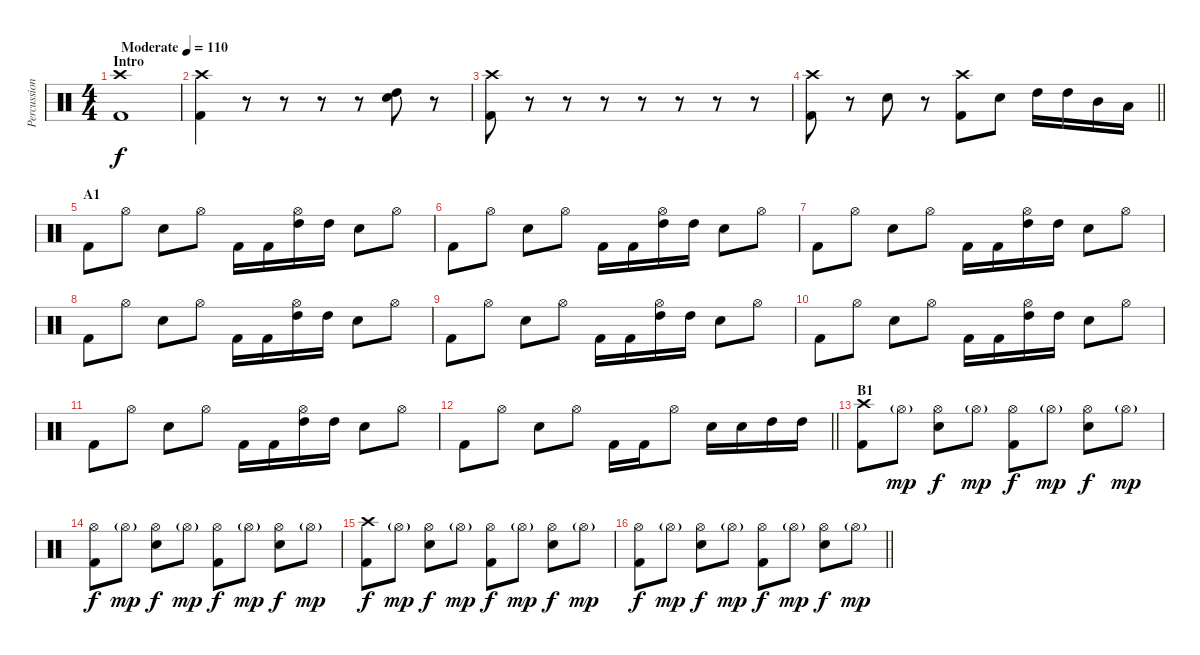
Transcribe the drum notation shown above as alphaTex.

\track ("Percussion" "Percussion") {instrument percussion}
\staff {score}
\articulation defaults
\ts (4 4)
\section ("" "Intro")
\tempo (110 "Moderate")
\clef neutral
\ks c
("Crash high (hit)" "Kick (hit) 2").1{dy f} |
("Crash high (hit)" "Kick (hit) 2").4 r.8 r.8 r.8 r.8 ("High Tom (hit)" "Snare (hit) 2").8 r.8 |
("Crash high (hit)" "Kick (hit) 2").8 r.8 r.8 r.8 r.8 r.8 r.8 r.8 |
\barLineRight lightlight
("Crash high (hit)" "Kick (hit) 2").8 r.8 "Snare (hit) 2".8 r.8 ("Crash high (hit)" "Kick (hit) 2").8 "Snare (hit) 2".8 "High Tom (hit)".16 "High Tom (hit)".16 "Mid Tom (hit)".16 "Low Tom (hit)".16 |
\section ("" "A1")
"Kick (hit) 2".8 "Hi-Hat (open)".8 "Snare (hit) 2".8 "Hi-Hat (open)".8 "Kick (hit) 2".16 "Kick (hit) 2".16 ("Hi-Hat (open)" "High Tom (hit)").16 "High Tom (hit)".16 "Snare (hit) 2".8 "Hi-Hat (open)".8 |
"Kick (hit) 2".8 "Hi-Hat (open)".8 "Snare (hit) 2".8 "Hi-Hat (open)".8 "Kick (hit) 2".16 "Kick (hit) 2".16 ("Hi-Hat (open)" "High Tom (hit)").16 "High Tom (hit)".16 "Snare (hit) 2".8 "Hi-Hat (open)".8 |
"Kick (hit) 2".8 "Hi-Hat (open)".8 "Snare (hit) 2".8 "Hi-Hat (open)".8 "Kick (hit) 2".16 "Kick (hit) 2".16 ("Hi-Hat (open)" "High Tom (hit)").16 "High Tom (hit)".16 "Snare (hit) 2".8 "Hi-Hat (open)".8 |
"Kick (hit) 2".8 "Hi-Hat (open)".8 "Snare (hit) 2".8 "Hi-Hat (open)".8 "Kick (hit) 2".16 "Kick (hit) 2".16 ("Hi-Hat (open)" "High Tom (hit)").16 "High Tom (hit)".16 "Snare (hit) 2".8 "Hi-Hat (open)".8 |
"Kick (hit) 2".8 "Hi-Hat (open)".8 "Snare (hit) 2".8 "Hi-Hat (open)".8 "Kick (hit) 2".16 "Kick (hit) 2".16 ("Hi-Hat (open)" "High Tom (hit)").16 "High Tom (hit)".16 "Snare (hit) 2".8 "Hi-Hat (open)".8 |
"Kick (hit) 2".8 "Hi-Hat (open)".8 "Snare (hit) 2".8 "Hi-Hat (open)".8 "Kick (hit) 2".16 "Kick (hit) 2".16 ("Hi-Hat (open)" "High Tom (hit)").16 "High Tom (hit)".16 "Snare (hit) 2".8 "Hi-Hat (open)".8 |
"Kick (hit) 2".8 "Hi-Hat (open)".8 "Snare (hit) 2".8 "Hi-Hat (open)".8 "Kick (hit) 2".16 "Kick (hit) 2".16 ("Hi-Hat (open)" "High Tom (hit)").16 "High Tom (hit)".16 "Snare (hit) 2".8 "Hi-Hat (open)".8 |
\barLineRight lightlight "Kick (hit) 2".8 "Hi-Hat (open)".8 "Snare (hit) 2".8 "Hi-Hat (open)".8 "Kick (hit) 2".16 "Kick (hit) 2".16 "Hi-Hat (open)".8 "Snare (hit) 2".16 "Snare (hit) 2".16 "High Tom (hit)".16 "High Tom (hit)".16
|
\section ("" "B1")
("Crash high (hit)" "Kick (hit) 2").8 "Hi-Hat (open)"{g}.8{dy mp} ("Hi-Hat (open)" "Snare (hit) 2").8{dy f} "Hi-Hat (open)"{g}.8{dy mp} ("Hi-Hat (open)" "Kick (hit) 2").8{dy f} "Hi-Hat (open)"{g}.8{dy mp} ("Hi-Hat (open)" "Snare (hit) 2").8{dy f} "Hi-Hat (open)"{g}.8{dy mp} |
("Hi-Hat (open)" "Kick (hit) 2").8{dy f} "Hi-Hat (open)"{g}.8{dy mp} ("Hi-Hat (open)" "Snare (hit) 2").8{dy f} "Hi-Hat (open)"{g}.8{dy mp} ("Hi-Hat (open)" "Kick (hit) 2").8{dy f} "Hi-Hat (open)"{g}.8{dy mp} ("Hi-Hat (open)" "Snare (hit) 2").8{dy f} "Hi-Hat (open)"{g}.8{dy mp} |
("Crash high (hit)" "Kick (hit) 2").8{dy f} "Hi-Hat (open)"{g}.8{dy mp} ("Hi-Hat (open)" "Snare (hit) 2").8{dy f} "Hi-Hat (open)"{g}.8{dy mp} ("Hi-Hat (open)" "Kick (hit) 2").8{dy f} "Hi-Hat (open)"{g}.8{dy mp} ("Hi-Hat (open)" "Snare (hit) 2").8{dy f} "Hi-Hat (open)"{g}.8{dy mp} |
\barLineRight lightlight
("Hi-Hat (open)" "Kick (hit) 2").8{dy f} "Hi-Hat (open)"{g}.8{dy mp} ("Hi-Hat (open)" "Snare (hit) 2").8{dy f} "Hi-Hat (open)"{g}.8{dy mp} ("Hi-Hat (open)" "Kick (hit) 2").8{dy f} "Hi-Hat (open)"{g}.8{dy mp} ("Hi-Hat (open)" "Snare (hit) 2").8{dy f} "Hi-Hat (open)"{g}.8{dy mp}
